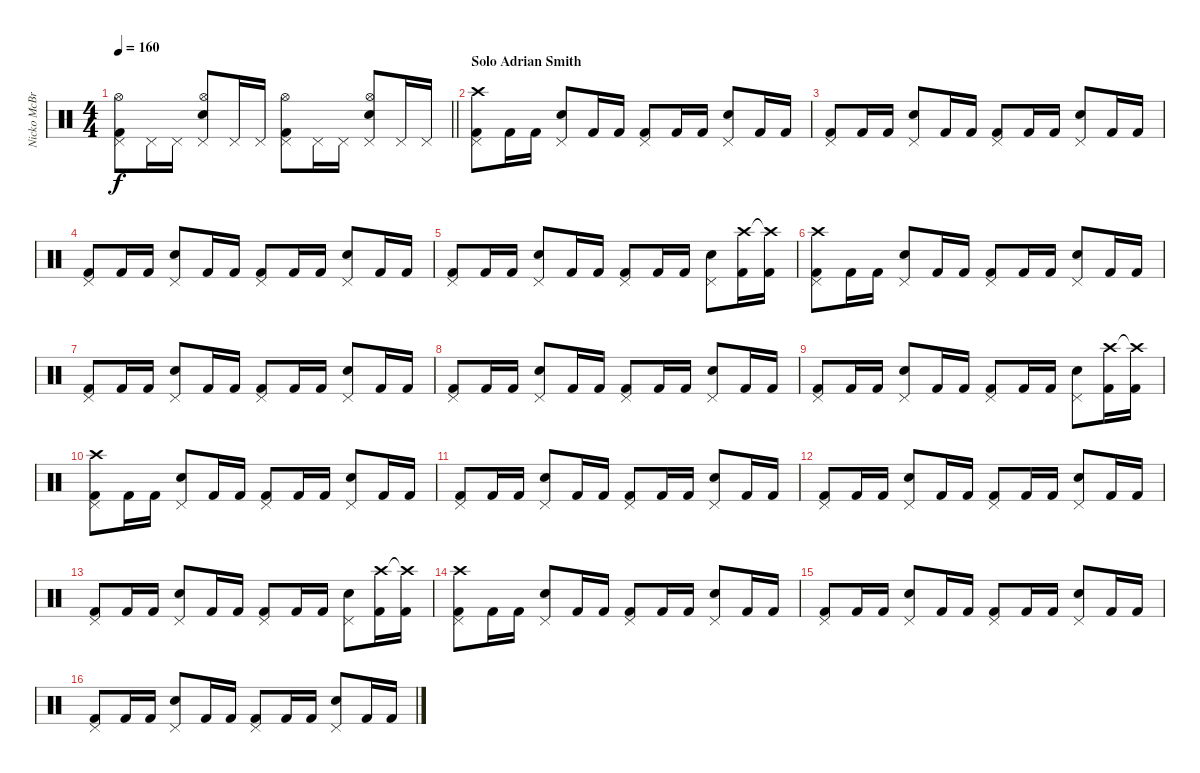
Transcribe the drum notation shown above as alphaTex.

\track ("Nicko McBrain" "Nicko McBr") {instrument percussion}
\staff {score}
\articulation defaults
\ts (4 4)
\tempo 160
\clef neutral
\barLineRight lightlight
\ks c
("Kick (hit) 2" "Pedal Hi-Hat (hit)" "Hi-Hat (open)").8{dy f} "Pedal Hi-Hat (hit)".16 "Pedal Hi-Hat (hit)".16 ("Snare (hit) 2" "Pedal Hi-Hat (hit)" "Hi-Hat (open)").8 "Pedal Hi-Hat (hit)".16 "Pedal Hi-Hat (hit)".16 ("Kick (hit) 2" "Pedal Hi-Hat (hit)" "Hi-Hat (open)").8 "Pedal Hi-Hat (hit)".16 "Pedal Hi-Hat (hit)".16 ("Snare (hit) 2" "Pedal Hi-Hat (hit)" "Hi-Hat (open)").8 "Pedal Hi-Hat (hit)".16 "Pedal Hi-Hat (hit)".16 |
\section ("" "Solo Adrian Smith")
("Kick (hit) 2" "Pedal Hi-Hat (hit)" "Crash high (hit)").8 "Kick (hit) 2".16 "Kick (hit) 2".16 ("Snare (hit) 2" "Pedal Hi-Hat (hit)").8 "Kick (hit) 2".16 "Kick (hit) 2".16 ("Kick (hit) 2" "Pedal Hi-Hat (hit)").8 "Kick (hit) 2".16 "Kick (hit) 2".16 ("Snare (hit) 2" "Pedal Hi-Hat (hit)").8 "Kick (hit) 2".16 "Kick (hit) 2".16 |
("Kick (hit) 2" "Pedal Hi-Hat (hit)").8 "Kick (hit) 2".16 "Kick (hit) 2".16 ("Snare (hit) 2" "Pedal Hi-Hat (hit)").8 "Kick (hit) 2".16 "Kick (hit) 2".16 ("Kick (hit) 2" "Pedal Hi-Hat (hit)").8 "Kick (hit) 2".16 "Kick (hit) 2".16 ("Snare (hit) 2" "Pedal Hi-Hat (hit)").8 "Kick (hit) 2".16 "Kick (hit) 2".16 |
("Kick (hit) 2" "Pedal Hi-Hat (hit)").8 "Kick (hit) 2".16 "Kick (hit) 2".16 ("Snare (hit) 2" "Pedal Hi-Hat (hit)").8 "Kick (hit) 2".16 "Kick (hit) 2".16 ("Kick (hit) 2" "Pedal Hi-Hat (hit)").8 "Kick (hit) 2".16 "Kick (hit) 2".16 ("Snare (hit) 2" "Pedal Hi-Hat (hit)").8 "Kick (hit) 2".16 "Kick (hit) 2".16 |
("Kick (hit) 2" "Pedal Hi-Hat (hit)").8 "Kick (hit) 2".16 "Kick (hit) 2".16 ("Snare (hit) 2" "Pedal Hi-Hat (hit)").8 "Kick (hit) 2".16 "Kick (hit) 2".16 ("Kick (hit) 2" "Pedal Hi-Hat (hit)").8 "Kick (hit) 2".16 "Kick (hit) 2".16 ("Snare (hit) 2" "Pedal Hi-Hat (hit)").8 ("Kick (hit) 2" "Crash high (hit)").16 ("Kick (hit) 2" "Crash high (hit)"{t}).16 |
("Kick (hit) 2" "Pedal Hi-Hat (hit)" "Crash high (hit)").8 "Kick (hit) 2".16 "Kick (hit) 2".16 ("Snare (hit) 2" "Pedal Hi-Hat (hit)").8 "Kick (hit) 2".16 "Kick (hit) 2".16 ("Kick (hit) 2" "Pedal Hi-Hat (hit)").8 "Kick (hit) 2".16 "Kick (hit) 2".16 ("Snare (hit) 2" "Pedal Hi-Hat (hit)").8 "Kick (hit) 2".16 "Kick (hit) 2".16 |
("Kick (hit) 2" "Pedal Hi-Hat (hit)").8 "Kick (hit) 2".16 "Kick (hit) 2".16 ("Snare (hit) 2" "Pedal Hi-Hat (hit)").8 "Kick (hit) 2".16 "Kick (hit) 2".16 ("Kick (hit) 2" "Pedal Hi-Hat (hit)").8 "Kick (hit) 2".16 "Kick (hit) 2".16 ("Snare (hit) 2" "Pedal Hi-Hat (hit)").8 "Kick (hit) 2".16 "Kick (hit) 2".16 |
("Kick (hit) 2" "Pedal Hi-Hat (hit)").8 "Kick (hit) 2".16 "Kick (hit) 2".16 ("Snare (hit) 2" "Pedal Hi-Hat (hit)").8 "Kick (hit) 2".16 "Kick (hit) 2".16 ("Kick (hit) 2" "Pedal Hi-Hat (hit)").8 "Kick (hit) 2".16 "Kick (hit) 2".16 ("Snare (hit) 2" "Pedal Hi-Hat (hit)").8 "Kick (hit) 2".16 "Kick (hit) 2".16 |
("Kick (hit) 2" "Pedal Hi-Hat (hit)").8 "Kick (hit) 2".16 "Kick (hit) 2".16 ("Snare (hit) 2" "Pedal Hi-Hat (hit)").8 "Kick (hit) 2".16 "Kick (hit) 2".16 ("Kick (hit) 2" "Pedal Hi-Hat (hit)").8 "Kick (hit) 2".16 "Kick (hit) 2".16 ("Snare (hit) 2" "Pedal Hi-Hat (hit)").8 ("Kick (hit) 2" "Crash high (hit)").16 ("Kick (hit) 2" "Crash high (hit)"{t}).16 |
("Kick (hit) 2" "Pedal Hi-Hat (hit)" "Crash high (hit)").8 "Kick (hit) 2".16 "Kick (hit) 2".16 ("Snare (hit) 2" "Pedal Hi-Hat (hit)").8 "Kick (hit) 2".16 "Kick (hit) 2".16 ("Kick (hit) 2" "Pedal Hi-Hat (hit)").8 "Kick (hit) 2".16 "Kick (hit) 2".16 ("Snare (hit) 2" "Pedal Hi-Hat (hit)").8 "Kick (hit) 2".16 "Kick (hit) 2".16 |
("Kick (hit) 2" "Pedal Hi-Hat (hit)").8 "Kick (hit) 2".16 "Kick (hit) 2".16 ("Snare (hit) 2" "Pedal Hi-Hat (hit)").8 "Kick (hit) 2".16 "Kick (hit) 2".16 ("Kick (hit) 2" "Pedal Hi-Hat (hit)").8 "Kick (hit) 2".16 "Kick (hit) 2".16 ("Snare (hit) 2" "Pedal Hi-Hat (hit)").8 "Kick (hit) 2".16 "Kick (hit) 2".16 |
("Kick (hit) 2" "Pedal Hi-Hat (hit)").8 "Kick (hit) 2".16 "Kick (hit) 2".16 ("Snare (hit) 2" "Pedal Hi-Hat (hit)").8 "Kick (hit) 2".16 "Kick (hit) 2".16 ("Kick (hit) 2" "Pedal Hi-Hat (hit)").8 "Kick (hit) 2".16 "Kick (hit) 2".16 ("Snare (hit) 2" "Pedal Hi-Hat (hit)").8 "Kick (hit) 2".16 "Kick (hit) 2".16 |
("Kick (hit) 2" "Pedal Hi-Hat (hit)").8 "Kick (hit) 2".16 "Kick (hit) 2".16 ("Snare (hit) 2" "Pedal Hi-Hat (hit)").8 "Kick (hit) 2".16 "Kick (hit) 2".16 ("Kick (hit) 2" "Pedal Hi-Hat (hit)").8 "Kick (hit) 2".16 "Kick (hit) 2".16 ("Snare (hit) 2" "Pedal Hi-Hat (hit)").8 ("Kick (hit) 2" "Crash high (hit)").16 ("Kick (hit) 2" "Crash high (hit)"{t}).16 |
("Kick (hit) 2" "Pedal Hi-Hat (hit)" "Crash high (hit)").8 "Kick (hit) 2".16 "Kick (hit) 2".16 ("Snare (hit) 2" "Pedal Hi-Hat (hit)").8 "Kick (hit) 2".16 "Kick (hit) 2".16 ("Kick (hit) 2" "Pedal Hi-Hat (hit)").8 "Kick (hit) 2".16 "Kick (hit) 2".16 ("Snare (hit) 2" "Pedal Hi-Hat (hit)").8 "Kick (hit) 2".16 "Kick (hit) 2".16 |
("Kick (hit) 2" "Pedal Hi-Hat (hit)").8 "Kick (hit) 2".16 "Kick (hit) 2".16 ("Snare (hit) 2" "Pedal Hi-Hat (hit)").8 "Kick (hit) 2".16 "Kick (hit) 2".16 ("Kick (hit) 2" "Pedal Hi-Hat (hit)").8 "Kick (hit) 2".16 "Kick (hit) 2".16 ("Snare (hit) 2" "Pedal Hi-Hat (hit)").8 "Kick (hit) 2".16 "Kick (hit) 2".16 |
("Kick (hit) 2" "Pedal Hi-Hat (hit)").8 "Kick (hit) 2".16 "Kick (hit) 2".16 ("Snare (hit) 2" "Pedal Hi-Hat (hit)").8 "Kick (hit) 2".16 "Kick (hit) 2".16 ("Kick (hit) 2" "Pedal Hi-Hat (hit)").8 "Kick (hit) 2".16 "Kick (hit) 2".16 ("Snare (hit) 2" "Pedal Hi-Hat (hit)").8 "Kick (hit) 2".16 "Kick (hit) 2".16
